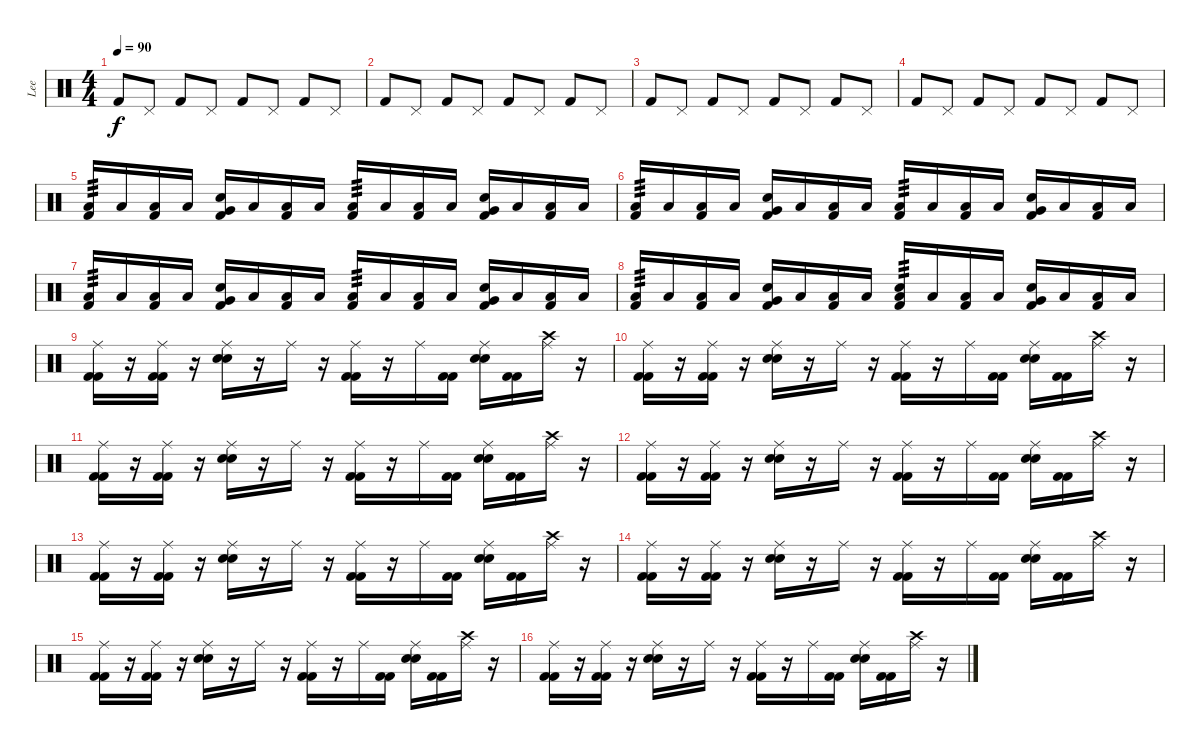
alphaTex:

\track ("Lee" "Lee") {instrument percussion}
\staff {score}
\articulation defaults
\ts (4 4)
\tempo 90
\clef neutral
\ks c "Kick (hit) 2".8{dy f} "Pedal Hi-Hat (hit)".8 "Kick (hit) 2".8 "Pedal Hi-Hat (hit)".8 "Kick (hit) 2".8 "Pedal Hi-Hat (hit)".8 "Kick (hit) 2".8 "Pedal Hi-Hat (hit)".8
|
"Kick (hit) 2".8 "Pedal Hi-Hat (hit)".8 "Kick (hit) 2".8 "Pedal Hi-Hat (hit)".8 "Kick (hit) 2".8 "Pedal Hi-Hat (hit)".8 "Kick (hit) 2".8 "Pedal Hi-Hat (hit)".8 |
"Kick (hit) 2".8 "Pedal Hi-Hat (hit)".8 "Kick (hit) 2".8 "Pedal Hi-Hat (hit)".8 "Kick (hit) 2".8 "Pedal Hi-Hat (hit)".8 "Kick (hit) 2".8 "Pedal Hi-Hat (hit)".8 |
"Kick (hit) 2".8 "Pedal Hi-Hat (hit)".8 "Kick (hit) 2".8 "Pedal Hi-Hat (hit)".8 "Kick (hit) 2".8 "Pedal Hi-Hat (hit)".8 "Kick (hit) 2".8 "Pedal Hi-Hat (hit)".8 |
("Kick (hit) 2" "Low Floor Tom (hit)").16{tp 3} "Low Floor Tom (hit)".16 ("Kick (hit) 2" "Low Floor Tom (hit)").16 "Low Floor Tom (hit)".16 ("Snare (hit) 2" "Kick (hit) 2" "Very Low Tom (hit)").16 "Low Floor Tom (hit)".16 ("Kick (hit) 2" "Low Floor Tom (hit)").16 "Low Floor Tom (hit)".16 ("Kick (hit) 2" "Low Floor Tom (hit)").16{tp 3} "Low Floor Tom (hit)".16 ("Kick (hit) 2" "Low Floor Tom (hit)").16 "Low Floor Tom (hit)".16 ("Snare (hit) 2" "Kick (hit) 2" "Very Low Tom (hit)").16 "Low Floor Tom (hit)".16 ("Kick (hit) 2" "Low Floor Tom (hit)").16 "Low Floor Tom (hit)".16 |
("Kick (hit) 2" "Low Floor Tom (hit)").16{tp 3} "Low Floor Tom (hit)".16 ("Kick (hit) 2" "Low Floor Tom (hit)").16 "Low Floor Tom (hit)".16 ("Snare (hit) 2" "Kick (hit) 2" "Very Low Tom (hit)").16 "Low Floor Tom (hit)".16 ("Kick (hit) 2" "Low Floor Tom (hit)").16 "Low Floor Tom (hit)".16 ("Kick (hit) 2" "Low Floor Tom (hit)").16{tp 3} "Low Floor Tom (hit)".16 ("Kick (hit) 2" "Low Floor Tom (hit)").16 "Low Floor Tom (hit)".16 ("Snare (hit) 2" "Kick (hit) 2" "Very Low Tom (hit)").16 "Low Floor Tom (hit)".16 ("Kick (hit) 2" "Low Floor Tom (hit)").16 "Low Floor Tom (hit)".16 |
("Kick (hit) 2" "Low Floor Tom (hit)").16{tp 3} "Low Floor Tom (hit)".16 ("Kick (hit) 2" "Low Floor Tom (hit)").16 "Low Floor Tom (hit)".16 ("Snare (hit) 2" "Kick (hit) 2" "Very Low Tom (hit)").16 "Low Floor Tom (hit)".16 ("Kick (hit) 2" "Low Floor Tom (hit)").16 "Low Floor Tom (hit)".16 ("Kick (hit) 2" "Low Floor Tom (hit)").16{tp 3} "Low Floor Tom (hit)".16 ("Kick (hit) 2" "Low Floor Tom (hit)").16 "Low Floor Tom (hit)".16 ("Snare (hit) 2" "Kick (hit) 2" "Very Low Tom (hit)").16 "Low Floor Tom (hit)".16 ("Kick (hit) 2" "Low Floor Tom (hit)").16 "Low Floor Tom (hit)".16 |
("Kick (hit) 2" "Low Floor Tom (hit)").16{tp 3} "Low Floor Tom (hit)".16 ("Kick (hit) 2" "Low Floor Tom (hit)").16 "Low Floor Tom (hit)".16 ("Snare (hit) 2" "Kick (hit) 2" "Very Low Tom (hit)").16 "Low Floor Tom (hit)".16 ("Kick (hit) 2" "Low Floor Tom (hit)").16 "Low Floor Tom (hit)".16 ("Snare (hit) 2" "Kick (hit) 2" "Low Floor Tom (hit)").16{tp 3} "Low Floor Tom (hit)".16 ("Kick (hit) 2" "Low Floor Tom (hit)").16 "Low Floor Tom (hit)".16 ("Snare (hit) 2" "Kick (hit) 2" "Very Low Tom (hit)").16 "Low Floor Tom (hit)".16 ("Kick (hit) 2" "Low Floor Tom (hit)").16 "Low Floor Tom (hit)".16 |
("Kick (hit) 2" "Kick (hit) 2" "Ride (middle)").16 r.16 ("Kick (hit) 2" "Kick (hit) 2" "Ride (middle)").16 r.16 ("Snare (hit) 2" "Snare (hit) 2" "Ride (middle)").16 r.16 "Ride (middle)".16 r.16 ("Kick (hit) 2" "Kick (hit) 2" "Ride (middle)").16 r.16 "Ride (middle)".16 ("Kick (hit) 2" "Kick (hit) 2").16 ("Snare (hit) 2" "Snare (hit) 2" "Ride (middle)").16 ("Kick (hit) 2" "Kick (hit) 2").16 ("Crash high (hit)" "Ride (middle)").16 r.16 |
("Kick (hit) 2" "Kick (hit) 2" "Ride (middle)").16 r.16 ("Kick (hit) 2" "Kick (hit) 2" "Ride (middle)").16 r.16 ("Snare (hit) 2" "Snare (hit) 2" "Ride (middle)").16 r.16 "Ride (middle)".16 r.16 ("Kick (hit) 2" "Kick (hit) 2" "Ride (middle)").16 r.16 "Ride (middle)".16 ("Kick (hit) 2" "Kick (hit) 2").16 ("Snare (hit) 2" "Snare (hit) 2" "Ride (middle)").16 ("Kick (hit) 2" "Kick (hit) 2").16 ("Crash high (hit)" "Ride (middle)").16 r.16 |
("Kick (hit) 2" "Kick (hit) 2" "Ride (middle)").16 r.16 ("Kick (hit) 2" "Kick (hit) 2" "Ride (middle)").16 r.16 ("Snare (hit) 2" "Snare (hit) 2" "Ride (middle)").16 r.16 "Ride (middle)".16 r.16 ("Kick (hit) 2" "Kick (hit) 2" "Ride (middle)").16 r.16 "Ride (middle)".16 ("Kick (hit) 2" "Kick (hit) 2").16 ("Snare (hit) 2" "Snare (hit) 2" "Ride (middle)").16 ("Kick (hit) 2" "Kick (hit) 2").16 ("Crash high (hit)" "Ride (middle)").16 r.16 |
("Kick (hit) 2" "Kick (hit) 2" "Ride (middle)").16 r.16 ("Kick (hit) 2" "Kick (hit) 2" "Ride (middle)").16 r.16 ("Snare (hit) 2" "Snare (hit) 2" "Ride (middle)").16 r.16 "Ride (middle)".16 r.16 ("Kick (hit) 2" "Kick (hit) 2" "Ride (middle)").16 r.16 "Ride (middle)".16 ("Kick (hit) 2" "Kick (hit) 2").16 ("Snare (hit) 2" "Snare (hit) 2" "Ride (middle)").16 ("Kick (hit) 2" "Kick (hit) 2").16 ("Crash high (hit)" "Ride (middle)").16 r.16 |
("Kick (hit) 2" "Kick (hit) 2" "Ride (middle)").16 r.16 ("Kick (hit) 2" "Kick (hit) 2" "Ride (middle)").16 r.16 ("Snare (hit) 2" "Snare (hit) 2" "Ride (middle)").16 r.16 "Ride (middle)".16 r.16 ("Kick (hit) 2" "Kick (hit) 2" "Ride (middle)").16 r.16 "Ride (middle)".16 ("Kick (hit) 2" "Kick (hit) 2").16 ("Snare (hit) 2" "Snare (hit) 2" "Ride (middle)").16 ("Kick (hit) 2" "Kick (hit) 2").16 ("Crash high (hit)" "Ride (middle)").16 r.16 |
("Kick (hit) 2" "Kick (hit) 2" "Ride (middle)").16 r.16 ("Kick (hit) 2" "Kick (hit) 2" "Ride (middle)").16 r.16 ("Snare (hit) 2" "Snare (hit) 2" "Ride (middle)").16 r.16 "Ride (middle)".16 r.16 ("Kick (hit) 2" "Kick (hit) 2" "Ride (middle)").16 r.16 "Ride (middle)".16 ("Kick (hit) 2" "Kick (hit) 2").16 ("Snare (hit) 2" "Snare (hit) 2" "Ride (middle)").16 ("Kick (hit) 2" "Kick (hit) 2").16 ("Crash high (hit)" "Ride (middle)").16 r.16 |
("Kick (hit) 2" "Kick (hit) 2" "Ride (middle)").16 r.16 ("Kick (hit) 2" "Kick (hit) 2" "Ride (middle)").16 r.16 ("Snare (hit) 2" "Snare (hit) 2" "Ride (middle)").16 r.16 "Ride (middle)".16 r.16 ("Kick (hit) 2" "Kick (hit) 2" "Ride (middle)").16 r.16 "Ride (middle)".16 ("Kick (hit) 2" "Kick (hit) 2").16 ("Snare (hit) 2" "Snare (hit) 2" "Ride (middle)").16 ("Kick (hit) 2" "Kick (hit) 2").16 ("Crash high (hit)" "Ride (middle)").16 r.16 |
("Kick (hit) 2" "Kick (hit) 2" "Ride (middle)").16 r.16 ("Kick (hit) 2" "Kick (hit) 2" "Ride (middle)").16 r.16 ("Snare (hit) 2" "Snare (hit) 2" "Ride (middle)").16 r.16 "Ride (middle)".16 r.16 ("Kick (hit) 2" "Kick (hit) 2" "Ride (middle)").16 r.16 "Ride (middle)".16 ("Kick (hit) 2" "Kick (hit) 2").16 ("Snare (hit) 2" "Snare (hit) 2" "Ride (middle)").16 ("Kick (hit) 2" "Kick (hit) 2").16 ("Crash high (hit)" "Ride (middle)").16 r.16
